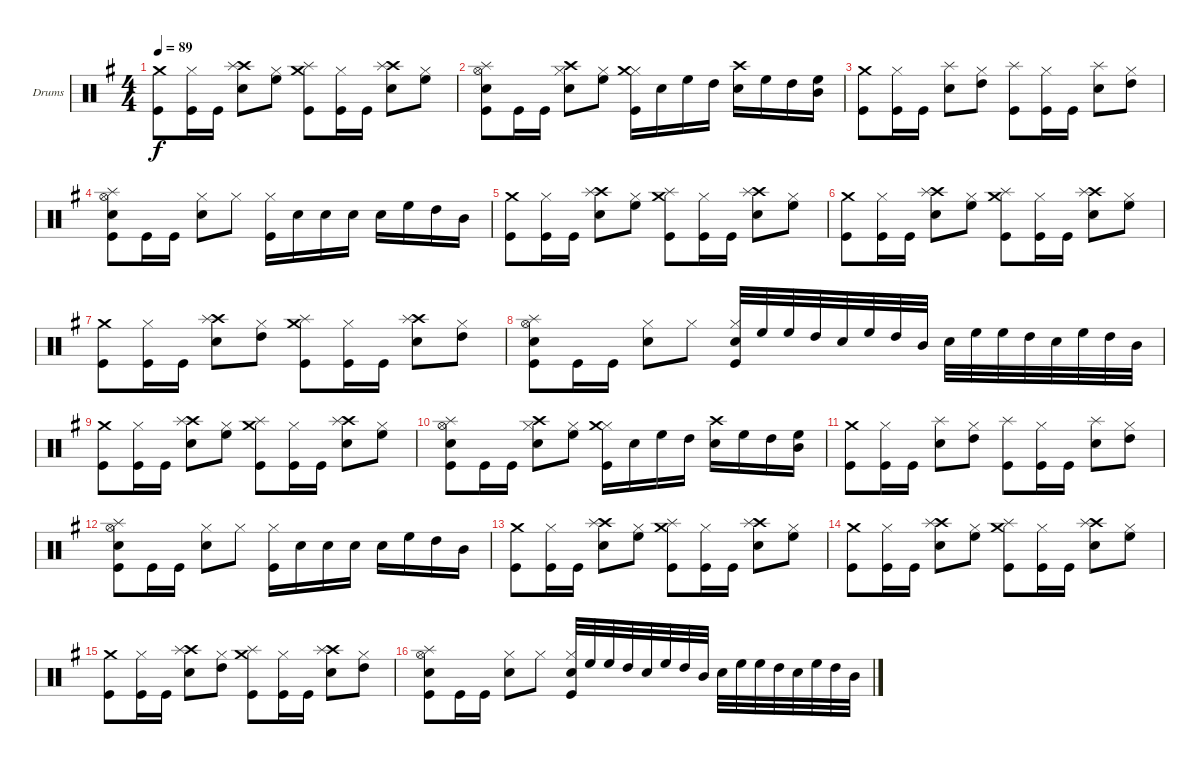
\bracketExtendMode groupsimilarinstruments
\firstSystemTrackNameOrientation horizontal
\otherSystemsTrackNameOrientation horizontal
\track ("Drumkit" "Drums") {instrument percussion}
\staff {score}
\articulation defaults
\ts (4 4)
\tempo 89
\clef neutral
\scale
0.461248
\ks eminor
("Kick (hit)" "Crash medium (hit)").8{dy f} ("Kick (hit)" "Hi-Hat (closed)").16 "Kick (hit)".16 ("Snare (hit) 2" "Crash high (hit)" "Splash (hit)").8 ("Hi-Hat (closed)" "High Floor Tom (hit)").8 ("Kick (hit)" "Crash medium (hit)" "Splash (hit)").8 ("Kick (hit)" "Hi-Hat (closed)").16 "Kick (hit)".16 ("Snare (hit) 2" "Crash high (hit)" "Splash (hit)").8 ("Hi-Hat (closed)" "High Floor Tom (hit)").8 |
\scale
0.538752 ("Kick (hit)" "Snare (hit) 2" "Hi-Hat (open)" "Splash (hit)").8 "Kick (hit)".16 "Kick (hit)".16 ("Snare (hit) 2" "Hi-Hat (closed)" "Crash high (hit)").8 ("Hi-Hat (closed)" "High Floor Tom (hit)").8 ("Kick (hit)" "Hi-Hat (closed)" "Crash medium (hit)").16 "Snare (hit) 2".16 "High Floor Tom (hit)".16 "High Tom (hit)".16 ("Snare (hit) 2" "Crash high (hit)").16 "High Floor Tom (hit)".16 "High Tom (hit)".16 ("Mid Tom (hit)" "High Floor Tom (hit)").16 |
\scale
0.46747 ("Kick (hit)" "Crash medium (hit)").8 ("Kick (hit)" "Hi-Hat (closed)").16 "Kick (hit)".16 ("Snare (hit) 2" "Splash (hit)").8 ("Hi-Hat (closed)" "High Tom (hit)").8 ("Kick (hit)" "Splash (hit)").8 ("Kick (hit)" "Hi-Hat (closed)").16 "Kick (hit)".16 ("Snare (hit) 2" "Splash (hit)").8 ("Hi-Hat (closed)" "High Tom (hit)").8 |
\scale
0.53253 ("Kick (hit)" "Snare (hit) 2" "Hi-Hat (open)" "Splash (hit)").8 "Kick (hit)".16 "Kick (hit)".16 ("Snare (hit) 2" "Hi-Hat (closed)").8 "Hi-Hat (closed)".8 ("Kick (hit)" "Hi-Hat (closed)").16 "Snare (hit) 2".16 "Snare (hit) 2".16 "Snare (hit) 2".16 "Snare (hit) 2".16 "High Floor Tom (hit)".16 "High Tom (hit)".16 "Mid Tom (hit)".16 |
\scale
0.5 ("Kick (hit)" "Crash medium (hit)").8 ("Kick (hit)" "Hi-Hat (closed)").16 "Kick (hit)".16 ("Snare (hit) 2" "Crash high (hit)" "Splash (hit)").8 ("Hi-Hat (closed)" "High Floor Tom (hit)").8 ("Kick (hit)" "Crash medium (hit)" "Splash (hit)").8 ("Kick (hit)" "Hi-Hat (closed)").16 "Kick (hit)".16 ("Snare (hit) 2" "Crash high (hit)" "Splash (hit)").8 ("Hi-Hat (closed)" "High Floor Tom (hit)").8 |
\scale
0.5 ("Kick (hit)" "Crash medium (hit)").8 ("Kick (hit)" "Hi-Hat (closed)").16 "Kick (hit)".16 ("Snare (hit) 2" "Crash high (hit)" "Splash (hit)").8 ("Hi-Hat (closed)" "High Floor Tom (hit)").8 ("Kick (hit)" "Crash medium (hit)" "Splash (hit)").8 ("Kick (hit)" "Hi-Hat (closed)").16 "Kick (hit)".16 ("Snare (hit) 2" "Crash high (hit)" "Splash (hit)").8 ("Hi-Hat (closed)" "High Floor Tom (hit)").8 |
\scale
0.451852 ("Kick (hit)" "Crash medium (hit)").8 ("Kick (hit)" "Hi-Hat (closed)").16 "Kick (hit)".16 ("Snare (hit) 2" "Crash high (hit)" "Splash (hit)").8 ("Hi-Hat (closed)" "High Tom (hit)").8 ("Kick (hit)" "Crash medium (hit)" "Splash (hit)").8 ("Kick (hit)" "Hi-Hat (closed)").16 "Kick (hit)".16 ("Snare (hit) 2" "Crash high (hit)" "Splash (hit)").8 ("Hi-Hat (closed)" "High Tom (hit)").8 |
\scale
0.548148 ("Kick (hit)" "Snare (hit) 2" "Hi-Hat (open)" "Splash (hit)").8 "Kick (hit)".16 "Kick (hit)".16 ("Snare (hit) 2" "Hi-Hat (closed)").8 "Hi-Hat (closed)".8 ("Kick (hit)" "Snare (hit) 2" "Hi-Hat (closed)").32 "High Floor Tom (hit)".32 "High Floor Tom (hit)".32 "High Tom (hit)".32 "Snare (hit) 2".32 "High Floor Tom (hit)".32 "High Tom (hit)".32 "Mid Tom (hit)".32 "Snare (hit) 2".32 "High Floor Tom (hit)".32 "High Floor Tom (hit)".32 "High Tom (hit)".32 "Snare (hit) 2".32 "High Floor Tom (hit)".32 "High Tom (hit)".32 "Mid Tom (hit)".32 |
\scale
0.461248 ("Kick (hit)" "Crash medium (hit)").8 ("Kick (hit)" "Hi-Hat (closed)").16 "Kick (hit)".16 ("Snare (hit) 2" "Crash high (hit)" "Splash (hit)").8 ("Hi-Hat (closed)" "High Floor Tom (hit)").8 ("Kick (hit)" "Crash medium (hit)" "Splash (hit)").8 ("Kick (hit)" "Hi-Hat (closed)").16 "Kick (hit)".16 ("Snare (hit) 2" "Crash high (hit)" "Splash (hit)").8 ("Hi-Hat (closed)" "High Floor Tom (hit)").8 |
\scale
0.538752 ("Kick (hit)" "Snare (hit) 2" "Hi-Hat (open)" "Splash (hit)").8 "Kick (hit)".16 "Kick (hit)".16 ("Snare (hit) 2" "Hi-Hat (closed)" "Crash high (hit)").8 ("Hi-Hat (closed)" "High Floor Tom (hit)").8 ("Kick (hit)" "Hi-Hat (closed)" "Crash medium (hit)").16 "Snare (hit) 2".16 "High Floor Tom (hit)".16 "High Tom (hit)".16 ("Snare (hit) 2" "Crash high (hit)").16 "High Floor Tom (hit)".16 "High Tom (hit)".16 ("Mid Tom (hit)" "High Floor Tom (hit)").16 |
\scale
0.46747 ("Kick (hit)" "Crash medium (hit)").8 ("Kick (hit)" "Hi-Hat (closed)").16 "Kick (hit)".16 ("Snare (hit) 2" "Splash (hit)").8 ("Hi-Hat (closed)" "High Tom (hit)").8 ("Kick (hit)" "Splash (hit)").8 ("Kick (hit)" "Hi-Hat (closed)").16 "Kick (hit)".16 ("Snare (hit) 2" "Splash (hit)").8 ("Hi-Hat (closed)" "High Tom (hit)").8 |
\scale
0.53253 ("Kick (hit)" "Snare (hit) 2" "Hi-Hat (open)" "Splash (hit)").8 "Kick (hit)".16 "Kick (hit)".16 ("Snare (hit) 2" "Hi-Hat (closed)").8 "Hi-Hat (closed)".8 ("Kick (hit)" "Hi-Hat (closed)").16 "Snare (hit) 2".16 "Snare (hit) 2".16 "Snare (hit) 2".16 "Snare (hit) 2".16 "High Floor Tom (hit)".16 "High Tom (hit)".16 "Mid Tom (hit)".16 |
\scale
0.5 ("Kick (hit)" "Crash medium (hit)").8 ("Kick (hit)" "Hi-Hat (closed)").16 "Kick (hit)".16 ("Snare (hit) 2" "Crash high (hit)" "Splash (hit)").8 ("Hi-Hat (closed)" "High Floor Tom (hit)").8 ("Kick (hit)" "Crash medium (hit)" "Splash (hit)").8 ("Kick (hit)" "Hi-Hat (closed)").16 "Kick (hit)".16 ("Snare (hit) 2" "Crash high (hit)" "Splash (hit)").8 ("Hi-Hat (closed)" "High Floor Tom (hit)").8 |
\scale
0.5 ("Kick (hit)" "Crash medium (hit)").8 ("Kick (hit)" "Hi-Hat (closed)").16 "Kick (hit)".16 ("Snare (hit) 2" "Crash high (hit)" "Splash (hit)").8 ("Hi-Hat (closed)" "High Floor Tom (hit)").8 ("Kick (hit)" "Crash medium (hit)" "Splash (hit)").8 ("Kick (hit)" "Hi-Hat (closed)").16 "Kick (hit)".16 ("Snare (hit) 2" "Crash high (hit)" "Splash (hit)").8 ("Hi-Hat (closed)" "High Floor Tom (hit)").8 |
\scale
0.451852 ("Kick (hit)" "Crash medium (hit)").8 ("Kick (hit)" "Hi-Hat (closed)").16 "Kick (hit)".16 ("Snare (hit) 2" "Crash high (hit)" "Splash (hit)").8 ("Hi-Hat (closed)" "High Tom (hit)").8 ("Kick (hit)" "Crash medium (hit)" "Splash (hit)").8 ("Kick (hit)" "Hi-Hat (closed)").16 "Kick (hit)".16 ("Snare (hit) 2" "Crash high (hit)" "Splash (hit)").8 ("Hi-Hat (closed)" "High Tom (hit)").8 |
\scale
0.548148 ("Kick (hit)" "Snare (hit) 2" "Hi-Hat (open)" "Splash (hit)").8 "Kick (hit)".16 "Kick (hit)".16 ("Snare (hit) 2" "Hi-Hat (closed)").8 "Hi-Hat (closed)".8 ("Kick (hit)" "Snare (hit) 2" "Hi-Hat (closed)").32 "High Floor Tom (hit)".32 "High Floor Tom (hit)".32 "High Tom (hit)".32 "Snare (hit) 2".32 "High Floor Tom (hit)".32 "High Tom (hit)".32 "Mid Tom (hit)".32 "Snare (hit) 2".32 "High Floor Tom (hit)".32 "High Floor Tom (hit)".32 "High Tom (hit)".32 "Snare (hit) 2".32 "High Floor Tom (hit)".32 "High Tom (hit)".32 "Mid Tom (hit)".32
